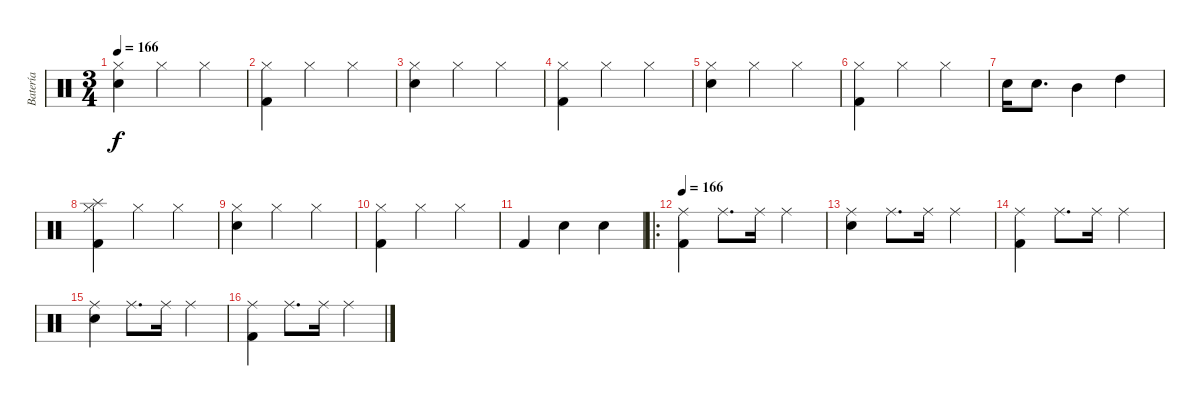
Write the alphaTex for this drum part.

\track ("Batería" "Batería") {instrument percussion}
\staff {score}
\articulation defaults
\ts (3 4)
\tempo 166
\clef neutral
\ks c
("Snare (hit) 2" "Hi-Hat (closed)").4{dy f} "Hi-Hat (closed)".4 "Hi-Hat (closed)".4 |
("Kick (hit) 2" "Hi-Hat (closed)").4 "Hi-Hat (closed)".4 "Hi-Hat (closed)".4 |
("Snare (hit) 2" "Hi-Hat (closed)").4 "Hi-Hat (closed)".4 "Hi-Hat (closed)".4 |
("Kick (hit) 2" "Hi-Hat (closed)").4 "Hi-Hat (closed)".4 "Hi-Hat (closed)".4 |
("Snare (hit) 2" "Hi-Hat (closed)").4 "Hi-Hat (closed)".4 "Hi-Hat (closed)".4 |
("Kick (hit) 2" "Hi-Hat (closed)").4 "Hi-Hat (closed)".4 "Hi-Hat (closed)".4 |
"Snare (hit) 2".16 "Snare (hit) 2".8{d} "Mid Tom (hit)".4 "High Tom (hit)".4 |
("Kick (hit) 2" "Splash (hit)" "Hi-Hat (closed)").4 "Hi-Hat (closed)".4 "Hi-Hat (closed)".4 |
("Snare (hit) 2" "Hi-Hat (closed)").4 "Hi-Hat (closed)".4 "Hi-Hat (closed)".4 |
("Kick (hit) 2" "Hi-Hat (closed)").4 "Hi-Hat (closed)".4 "Hi-Hat (closed)".4 |
"Kick (hit) 2".4 "Snare (hit) 2".4 "Snare (hit) 2".4 |
\ro
\tempo 166
("Kick (hit) 2" "Ride (middle)").4 "Ride (middle)".8{d} "Ride (middle)".16 "Ride (middle)".4 |
("Snare (hit) 2" "Ride (middle)").4 "Ride (middle)".8{d} "Ride (middle)".16 "Ride (middle)".4 |
("Kick (hit) 2" "Ride (middle)").4 "Ride (middle)".8{d} "Ride (middle)".16 "Ride (middle)".4 |
("Snare (hit) 2" "Ride (middle)").4 "Ride (middle)".8{d} "Ride (middle)".16 "Ride (middle)".4 |
("Kick (hit) 2" "Ride (middle)").4 "Ride (middle)".8{d} "Ride (middle)".16 "Ride (middle)".4
